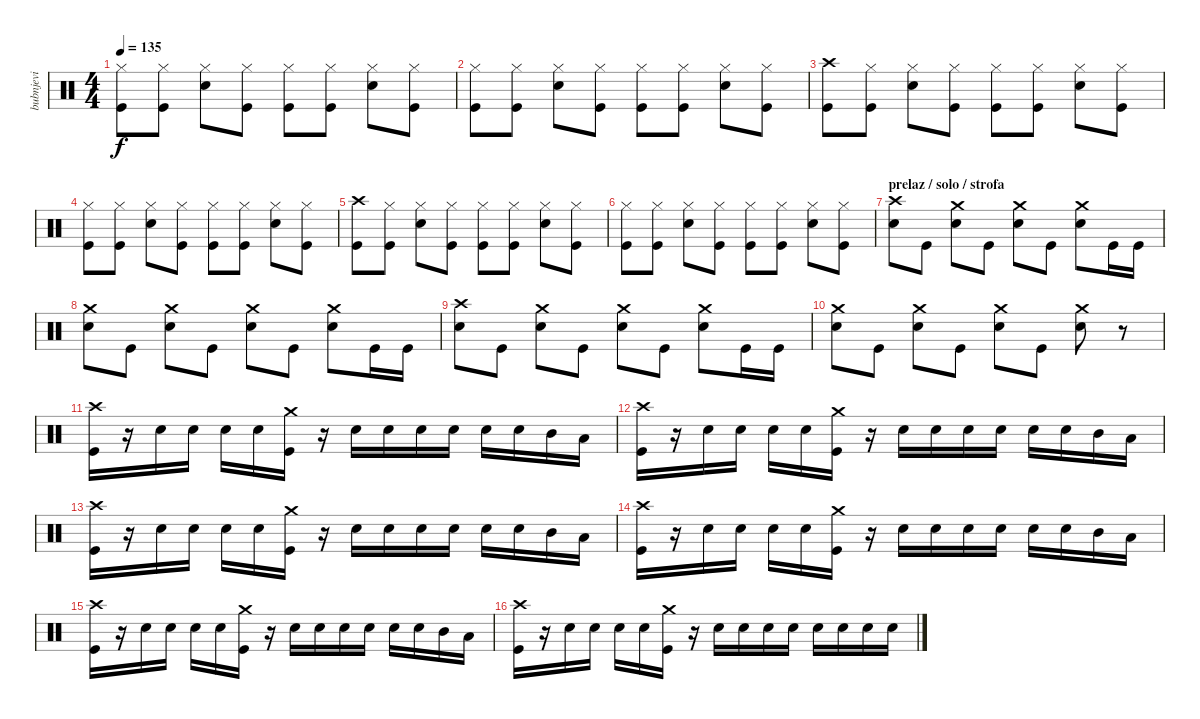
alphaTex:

\track ("bubnjevi" "bubnjevi") {instrument percussion}
\staff {score}
\articulation defaults
\ts (4 4)
\tempo 135
\clef neutral
\ks c
("Hi-Hat (closed)" "Kick (hit)").8{dy f} ("Hi-Hat (closed)" "Kick (hit)").8 ("Hi-Hat (closed)" "Electric Snare (hit)").8 ("Hi-Hat (closed)" "Kick (hit)").8 ("Hi-Hat (closed)" "Kick (hit)").8 ("Hi-Hat (closed)" "Kick (hit)").8 ("Hi-Hat (closed)" "Electric Snare (hit)").8 ("Hi-Hat (closed)" "Kick (hit)").8 |
("Hi-Hat (closed)" "Kick (hit)").8 ("Hi-Hat (closed)" "Kick (hit)").8 ("Hi-Hat (closed)" "Electric Snare (hit)").8 ("Hi-Hat (closed)" "Kick (hit)").8 ("Hi-Hat (closed)" "Kick (hit)").8 ("Hi-Hat (closed)" "Kick (hit)").8 ("Hi-Hat (closed)" "Electric Snare (hit)").8 ("Hi-Hat (closed)" "Kick (hit)").8 |
("Crash high (hit)" "Kick (hit)").8 ("Hi-Hat (closed)" "Kick (hit)").8 ("Hi-Hat (closed)" "Electric Snare (hit)").8 ("Hi-Hat (closed)" "Kick (hit)").8 ("Hi-Hat (closed)" "Kick (hit)").8 ("Hi-Hat (closed)" "Kick (hit)").8 ("Hi-Hat (closed)" "Electric Snare (hit)").8 ("Hi-Hat (closed)" "Kick (hit)").8 |
("Hi-Hat (closed)" "Kick (hit)").8 ("Hi-Hat (closed)" "Kick (hit)").8 ("Hi-Hat (closed)" "Electric Snare (hit)").8 ("Hi-Hat (closed)" "Kick (hit)").8 ("Hi-Hat (closed)" "Kick (hit)").8 ("Hi-Hat (closed)" "Kick (hit)").8 ("Hi-Hat (closed)" "Electric Snare (hit)").8 ("Hi-Hat (closed)" "Kick (hit)").8 |
("Crash high (hit)" "Kick (hit)").8 ("Hi-Hat (closed)" "Kick (hit)").8 ("Hi-Hat (closed)" "Electric Snare (hit)").8 ("Hi-Hat (closed)" "Kick (hit)").8 ("Hi-Hat (closed)" "Kick (hit)").8 ("Hi-Hat (closed)" "Kick (hit)").8 ("Hi-Hat (closed)" "Electric Snare (hit)").8 ("Hi-Hat (closed)" "Kick (hit)").8 |
("Hi-Hat (closed)" "Kick (hit)").8 ("Hi-Hat (closed)" "Kick (hit)").8 ("Hi-Hat (closed)" "Electric Snare (hit)").8 ("Hi-Hat (closed)" "Kick (hit)").8 ("Hi-Hat (closed)" "Kick (hit)").8 ("Hi-Hat (closed)" "Kick (hit)").8 ("Hi-Hat (closed)" "Electric Snare (hit)").8 ("Hi-Hat (closed)" "Kick (hit)").8 |
\section ("" "prelaz / solo / strofa")
("Crash high (hit)" "Electric Snare (hit)").8 "Kick (hit)".8 ("Crash medium (hit)" "Electric Snare (hit)").8 "Kick (hit)".8 ("Crash medium (hit)" "Electric Snare (hit)").8 "Kick (hit)".8 ("Crash medium (hit)" "Electric Snare (hit)").8 "Kick (hit)".16 "Kick (hit)".16 |
("Crash medium (hit)" "Electric Snare (hit)").8 "Kick (hit)".8 ("Crash medium (hit)" "Electric Snare (hit)").8 "Kick (hit)".8 ("Crash medium (hit)" "Electric Snare (hit)").8 "Kick (hit)".8 ("Crash medium (hit)" "Electric Snare (hit)").8 "Kick (hit)".16 "Kick (hit)".16 |
("Crash high (hit)" "Electric Snare (hit)").8 "Kick (hit)".8 ("Crash medium (hit)" "Electric Snare (hit)").8 "Kick (hit)".8 ("Crash medium (hit)" "Electric Snare (hit)").8 "Kick (hit)".8 ("Crash medium (hit)" "Electric Snare (hit)").8 "Kick (hit)".16 "Kick (hit)".16 |
("Crash medium (hit)" "Electric Snare (hit)").8 "Kick (hit)".8 ("Crash medium (hit)" "Electric Snare (hit)").8 "Kick (hit)".8 ("Crash medium (hit)" "Electric Snare (hit)").8 "Kick (hit)".8 ("Crash medium (hit)" "Electric Snare (hit)").8 r.8 |
("Crash high (hit)" "Kick (hit)").16 r.16 "Electric Snare (hit)".16 "Electric Snare (hit)".16 "Electric Snare (hit)".16 "Electric Snare (hit)".16 ("Crash medium (hit)" "Kick (hit)").16 r.16 "Electric Snare (hit)".16 "Electric Snare (hit)".16 "Electric Snare (hit)".16 "Electric Snare (hit)".16 "Electric Snare (hit)".16 "Electric Snare (hit)".16 "Mid Tom (hit)".16 "Low Tom (hit)".16 |
("Crash high (hit)" "Kick (hit)").16 r.16 "Electric Snare (hit)".16 "Electric Snare (hit)".16 "Electric Snare (hit)".16 "Electric Snare (hit)".16 ("Crash medium (hit)" "Kick (hit)").16 r.16 "Electric Snare (hit)".16 "Electric Snare (hit)".16 "Electric Snare (hit)".16 "Electric Snare (hit)".16 "Electric Snare (hit)".16 "Electric Snare (hit)".16 "Mid Tom (hit)".16 "Low Tom (hit)".16 |
("Crash high (hit)" "Kick (hit)").16 r.16 "Electric Snare (hit)".16 "Electric Snare (hit)".16 "Electric Snare (hit)".16 "Electric Snare (hit)".16 ("Crash medium (hit)" "Kick (hit)").16 r.16 "Electric Snare (hit)".16 "Electric Snare (hit)".16 "Electric Snare (hit)".16 "Electric Snare (hit)".16 "Electric Snare (hit)".16 "Electric Snare (hit)".16 "Mid Tom (hit)".16 "Low Tom (hit)".16 |
("Crash high (hit)" "Kick (hit)").16 r.16 "Electric Snare (hit)".16 "Electric Snare (hit)".16 "Electric Snare (hit)".16 "Electric Snare (hit)".16 ("Crash medium (hit)" "Kick (hit)").16 r.16 "Electric Snare (hit)".16 "Electric Snare (hit)".16 "Electric Snare (hit)".16 "Electric Snare (hit)".16 "Electric Snare (hit)".16 "Electric Snare (hit)".16 "Mid Tom (hit)".16 "Low Tom (hit)".16 |
("Crash high (hit)" "Kick (hit)").16 r.16 "Electric Snare (hit)".16 "Electric Snare (hit)".16 "Electric Snare (hit)".16 "Electric Snare (hit)".16 ("Crash medium (hit)" "Kick (hit)").16 r.16 "Electric Snare (hit)".16 "Electric Snare (hit)".16 "Electric Snare (hit)".16 "Electric Snare (hit)".16 "Electric Snare (hit)".16 "Electric Snare (hit)".16 "Mid Tom (hit)".16 "Low Tom (hit)".16 |
("Crash high (hit)" "Kick (hit)").16 r.16 "Electric Snare (hit)".16 "Electric Snare (hit)".16 "Electric Snare (hit)".16 "Electric Snare (hit)".16 ("Crash medium (hit)" "Kick (hit)").16 r.16 "Electric Snare (hit)".16 "Electric Snare (hit)".16 "Electric Snare (hit)".16 "Electric Snare (hit)".16 "Electric Snare (hit)".16 "Electric Snare (hit)".16 "Electric Snare (hit)".16 "Electric Snare (hit)".16
